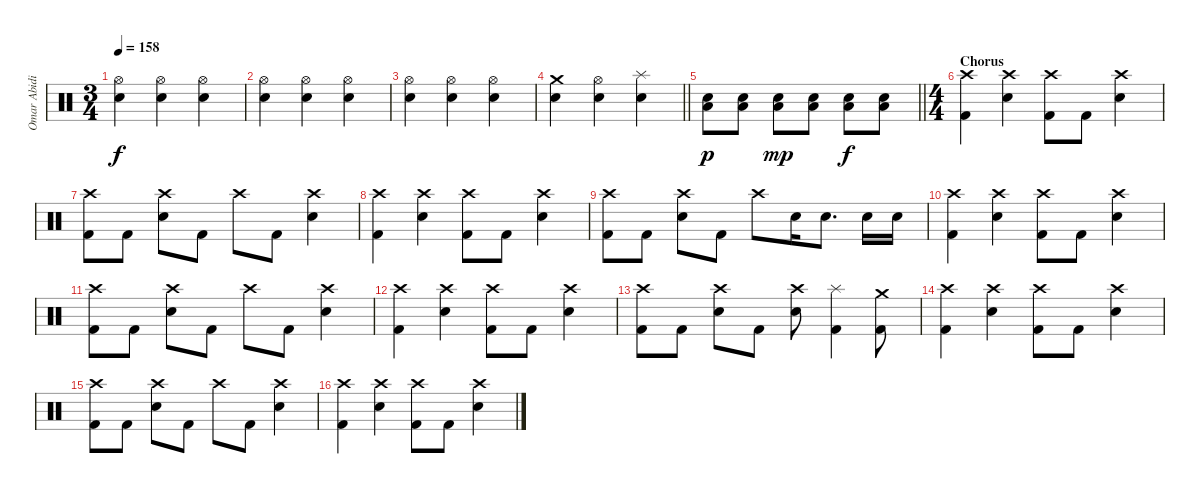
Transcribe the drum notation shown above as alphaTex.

\track ("Omar Abidi" "Omar Abidi") {instrument percussion}
\staff {score}
\articulation defaults
\ts (3 4)
\tempo 158
\clef neutral
\ks c
("Hi-Hat (open)" "Snare (hit) 2").4{dy f} ("Hi-Hat (open)" "Snare (hit) 2").4 ("Hi-Hat (open)" "Snare (hit) 2").4 |
("Hi-Hat (open)" "Snare (hit) 2").4 ("Hi-Hat (open)" "Snare (hit) 2").4 ("Hi-Hat (open)" "Snare (hit) 2").4 |
("Hi-Hat (open)" "Snare (hit) 2").4 ("Hi-Hat (open)" "Snare (hit) 2").4 ("Hi-Hat (open)" "Snare (hit) 2").4 |
\barLineRight lightlight
("Crash medium (hit)" "Snare (hit) 2").4 ("Hi-Hat (open)" "Snare (hit) 2").4 ("Splash (hit)" "Snare (hit) 2").4{volume 9} |
\barLineRight lightlight
("Snare (hit) 2" "Low Tom (hit)").8{dy p volume 16} ("Snare (hit) 2" "Low Tom (hit)").8 ("Snare (hit) 2" "Low Tom (hit)").8{dy mp} ("Snare (hit) 2" "Low Tom (hit)").8 ("Snare (hit) 2" "Low Tom (hit)").8{dy f} ("Snare (hit) 2" "Low Tom (hit)").8 |
\ts (4 4)
\section ("" "Chorus")
("Crash high (hit)" "Kick (hit) 2").4 ("Crash high (hit)" "Snare (hit) 2").4 ("Crash high (hit)" "Kick (hit) 2").8 "Kick (hit) 2".8 ("Crash high (hit)" "Snare (hit) 2").4 |
("Crash high (hit)" "Kick (hit) 2").8 "Kick (hit) 2".8 ("Crash high (hit)" "Snare (hit) 2").8 "Kick (hit) 2".8 "Crash high (hit)".8 "Kick (hit) 2".8 ("Crash high (hit)" "Snare (hit) 2").4 |
("Crash high (hit)" "Kick (hit) 2").4 ("Crash high (hit)" "Snare (hit) 2").4 ("Crash high (hit)" "Kick (hit) 2").8 "Kick (hit) 2".8 ("Crash high (hit)" "Snare (hit) 2").4 |
("Crash high (hit)" "Kick (hit) 2").8 "Kick (hit) 2".8 ("Crash high (hit)" "Snare (hit) 2").8 "Kick (hit) 2".8 "Crash high (hit)".8 "Snare (hit) 2".16 "Snare (hit) 2".8{d} "Snare (hit) 2".16 "Snare (hit) 2".16 |
("Crash high (hit)" "Kick (hit) 2").4 ("Crash high (hit)" "Snare (hit) 2").4 ("Crash high (hit)" "Kick (hit) 2").8 "Kick (hit) 2".8 ("Crash high (hit)" "Snare (hit) 2").4 |
("Crash high (hit)" "Kick (hit) 2").8 "Kick (hit) 2".8 ("Crash high (hit)" "Snare (hit) 2").8 "Kick (hit) 2".8 "Crash high (hit)".8 "Kick (hit) 2".8 ("Crash high (hit)" "Snare (hit) 2").4 |
("Crash high (hit)" "Kick (hit) 2").4 ("Crash high (hit)" "Snare (hit) 2").4 ("Crash high (hit)" "Kick (hit) 2").8 "Kick (hit) 2".8 ("Crash high (hit)" "Snare (hit) 2").4 |
("Crash high (hit)" "Kick (hit) 2").8 "Kick (hit) 2".8 ("Crash high (hit)" "Snare (hit) 2").8 "Kick (hit) 2".8 ("Crash high (hit)" "Snare (hit) 2").8 ("Splash (hit)" "Kick (hit) 2").4 ("Crash medium (hit)" "Kick (hit) 2").8 |
("Crash high (hit)" "Kick (hit) 2").4 ("Crash high (hit)" "Snare (hit) 2").4 ("Crash high (hit)" "Kick (hit) 2").8 "Kick (hit) 2".8 ("Crash high (hit)" "Snare (hit) 2").4 |
("Crash high (hit)" "Kick (hit) 2").8 "Kick (hit) 2".8 ("Crash high (hit)" "Snare (hit) 2").8 "Kick (hit) 2".8 "Crash high (hit)".8 "Kick (hit) 2".8 ("Crash high (hit)" "Snare (hit) 2").4 |
("Crash high (hit)" "Kick (hit) 2").4 ("Crash high (hit)" "Snare (hit) 2").4 ("Crash high (hit)" "Kick (hit) 2").8 "Kick (hit) 2".8 ("Crash high (hit)" "Snare (hit) 2").4
